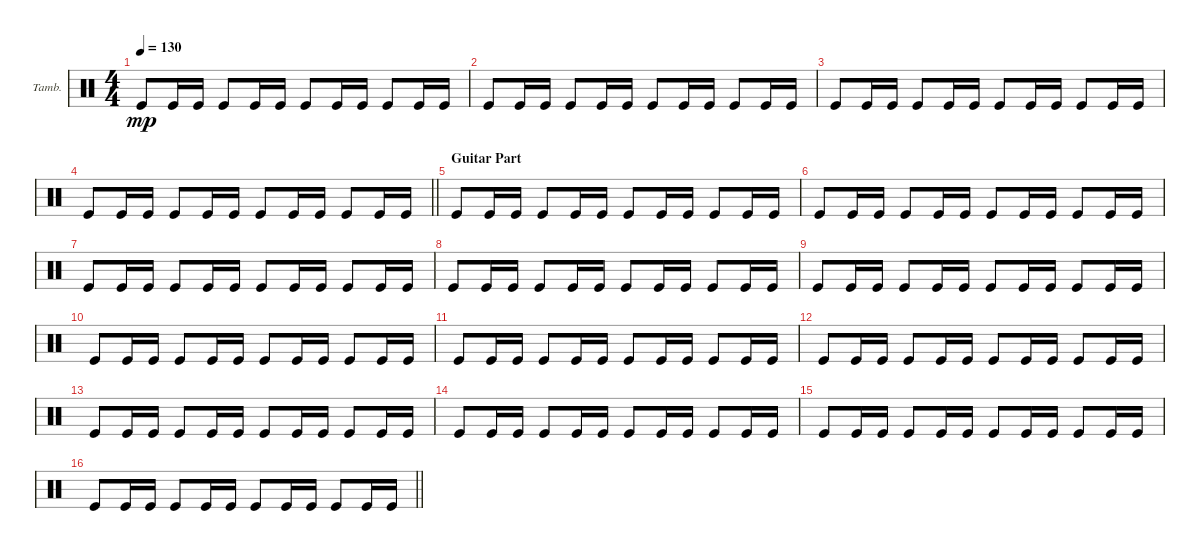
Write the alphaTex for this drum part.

\bracketExtendMode groupsimilarinstruments
\firstSystemTrackNameOrientation horizontal
\otherSystemsTrackNameOrientation horizontal
\track ("Tambourine" "Tamb.") {instrument percussion}
\staff {score}
\articulation defaults
\ts (4 4)
\tempo 130
\clef neutral
\ks c "Kick (hit)".8{dy mp} "Kick (hit)".16 "Kick (hit)".16 "Kick (hit)".8 "Kick (hit)".16 "Kick (hit)".16 "Kick (hit)".8 "Kick (hit)".16 "Kick (hit)".16 "Kick (hit)".8 "Kick (hit)".16 "Kick (hit)".16
|
"Kick (hit)".8 "Kick (hit)".16 "Kick (hit)".16 "Kick (hit)".8 "Kick (hit)".16 "Kick (hit)".16 "Kick (hit)".8 "Kick (hit)".16 "Kick (hit)".16 "Kick (hit)".8 "Kick (hit)".16 "Kick (hit)".16 |
"Kick (hit)".8 "Kick (hit)".16 "Kick (hit)".16 "Kick (hit)".8 "Kick (hit)".16 "Kick (hit)".16 "Kick (hit)".8 "Kick (hit)".16 "Kick (hit)".16 "Kick (hit)".8 "Kick (hit)".16 "Kick (hit)".16 |
\barLineRight lightlight "Kick (hit)".8 "Kick (hit)".16 "Kick (hit)".16 "Kick (hit)".8 "Kick (hit)".16 "Kick (hit)".16 "Kick (hit)".8 "Kick (hit)".16 "Kick (hit)".16 "Kick (hit)".8 "Kick (hit)".16 "Kick (hit)".16
|
\section ("" "Guitar Part")
"Kick (hit)".8 "Kick (hit)".16 "Kick (hit)".16 "Kick (hit)".8 "Kick (hit)".16 "Kick (hit)".16 "Kick (hit)".8 "Kick (hit)".16 "Kick (hit)".16 "Kick (hit)".8 "Kick (hit)".16 "Kick (hit)".16 |
"Kick (hit)".8 "Kick (hit)".16 "Kick (hit)".16 "Kick (hit)".8 "Kick (hit)".16 "Kick (hit)".16 "Kick (hit)".8 "Kick (hit)".16 "Kick (hit)".16 "Kick (hit)".8 "Kick (hit)".16 "Kick (hit)".16 |
"Kick (hit)".8 "Kick (hit)".16 "Kick (hit)".16 "Kick (hit)".8 "Kick (hit)".16 "Kick (hit)".16 "Kick (hit)".8 "Kick (hit)".16 "Kick (hit)".16 "Kick (hit)".8 "Kick (hit)".16 "Kick (hit)".16 |
"Kick (hit)".8 "Kick (hit)".16 "Kick (hit)".16 "Kick (hit)".8 "Kick (hit)".16 "Kick (hit)".16 "Kick (hit)".8 "Kick (hit)".16 "Kick (hit)".16 "Kick (hit)".8 "Kick (hit)".16 "Kick (hit)".16 |
"Kick (hit)".8 "Kick (hit)".16 "Kick (hit)".16 "Kick (hit)".8 "Kick (hit)".16 "Kick (hit)".16 "Kick (hit)".8 "Kick (hit)".16 "Kick (hit)".16 "Kick (hit)".8 "Kick (hit)".16 "Kick (hit)".16 |
"Kick (hit)".8 "Kick (hit)".16 "Kick (hit)".16 "Kick (hit)".8 "Kick (hit)".16 "Kick (hit)".16 "Kick (hit)".8 "Kick (hit)".16 "Kick (hit)".16 "Kick (hit)".8 "Kick (hit)".16 "Kick (hit)".16 |
"Kick (hit)".8 "Kick (hit)".16 "Kick (hit)".16 "Kick (hit)".8 "Kick (hit)".16 "Kick (hit)".16 "Kick (hit)".8 "Kick (hit)".16 "Kick (hit)".16 "Kick (hit)".8 "Kick (hit)".16 "Kick (hit)".16 |
"Kick (hit)".8 "Kick (hit)".16 "Kick (hit)".16 "Kick (hit)".8 "Kick (hit)".16 "Kick (hit)".16 "Kick (hit)".8 "Kick (hit)".16 "Kick (hit)".16 "Kick (hit)".8 "Kick (hit)".16 "Kick (hit)".16 |
"Kick (hit)".8 "Kick (hit)".16 "Kick (hit)".16 "Kick (hit)".8 "Kick (hit)".16 "Kick (hit)".16 "Kick (hit)".8 "Kick (hit)".16 "Kick (hit)".16 "Kick (hit)".8 "Kick (hit)".16 "Kick (hit)".16 |
"Kick (hit)".8 "Kick (hit)".16 "Kick (hit)".16 "Kick (hit)".8 "Kick (hit)".16 "Kick (hit)".16 "Kick (hit)".8 "Kick (hit)".16 "Kick (hit)".16 "Kick (hit)".8 "Kick (hit)".16 "Kick (hit)".16 |
"Kick (hit)".8 "Kick (hit)".16 "Kick (hit)".16 "Kick (hit)".8 "Kick (hit)".16 "Kick (hit)".16 "Kick (hit)".8 "Kick (hit)".16 "Kick (hit)".16 "Kick (hit)".8 "Kick (hit)".16 "Kick (hit)".16 |
\barLineRight lightlight "Kick (hit)".8 "Kick (hit)".16 "Kick (hit)".16 "Kick (hit)".8 "Kick (hit)".16 "Kick (hit)".16 "Kick (hit)".8 "Kick (hit)".16 "Kick (hit)".16 "Kick (hit)".8 "Kick (hit)".16 "Kick (hit)".16
